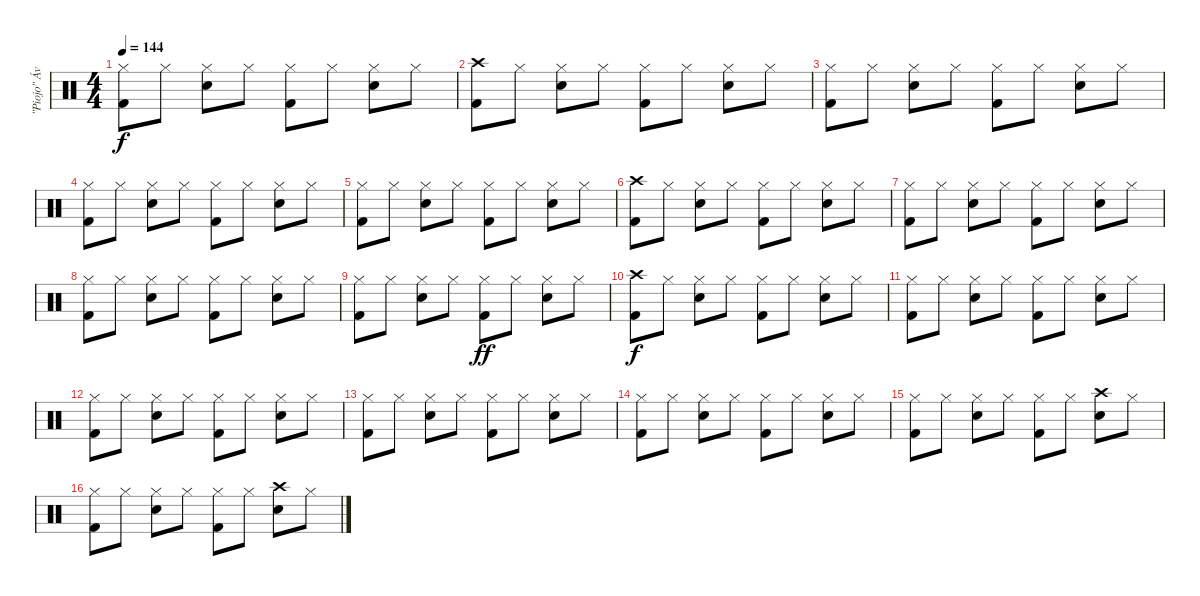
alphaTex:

\track ("\"Piojo\" Ávalos" "\"Piojo\" Áv") {instrument percussion}
\staff {score}
\articulation defaults
\ts (4 4)
\tempo 144
\clef neutral
\ks c
("Hi-Hat (closed)" "Kick (hit) 2").8{dy f} "Hi-Hat (closed)".8 ("Hi-Hat (closed)" "Electric Snare (hit)").8 "Hi-Hat (closed)".8 ("Hi-Hat (closed)" "Kick (hit) 2").8 "Hi-Hat (closed)".8 ("Hi-Hat (closed)" "Electric Snare (hit)").8 "Hi-Hat (closed)".8 |
("Crash high (hit)" "Kick (hit) 2").8 "Hi-Hat (closed)".8 ("Hi-Hat (closed)" "Electric Snare (hit)").8 "Hi-Hat (closed)".8 ("Hi-Hat (closed)" "Kick (hit) 2").8 "Hi-Hat (closed)".8 ("Hi-Hat (closed)" "Electric Snare (hit)").8 "Hi-Hat (closed)".8 |
("Hi-Hat (closed)" "Kick (hit) 2").8 "Hi-Hat (closed)".8 ("Hi-Hat (closed)" "Electric Snare (hit)").8 "Hi-Hat (closed)".8 ("Hi-Hat (closed)" "Kick (hit) 2").8 "Hi-Hat (closed)".8 ("Hi-Hat (closed)" "Electric Snare (hit)").8 "Hi-Hat (closed)".8 |
("Hi-Hat (closed)" "Kick (hit) 2").8 "Hi-Hat (closed)".8 ("Hi-Hat (closed)" "Electric Snare (hit)").8 "Hi-Hat (closed)".8 ("Hi-Hat (closed)" "Kick (hit) 2").8 "Hi-Hat (closed)".8 ("Hi-Hat (closed)" "Electric Snare (hit)").8 "Hi-Hat (closed)".8 |
("Hi-Hat (closed)" "Kick (hit) 2").8 "Hi-Hat (closed)".8 ("Hi-Hat (closed)" "Electric Snare (hit)").8 "Hi-Hat (closed)".8 ("Hi-Hat (closed)" "Kick (hit) 2").8 "Hi-Hat (closed)".8 ("Hi-Hat (closed)" "Electric Snare (hit)").8 "Hi-Hat (closed)".8 |
("Crash high (hit)" "Kick (hit) 2").8 "Hi-Hat (closed)".8 ("Hi-Hat (closed)" "Electric Snare (hit)").8 "Hi-Hat (closed)".8 ("Hi-Hat (closed)" "Kick (hit) 2").8 "Hi-Hat (closed)".8 ("Hi-Hat (closed)" "Electric Snare (hit)").8 "Hi-Hat (closed)".8 |
("Hi-Hat (closed)" "Kick (hit) 2").8 "Hi-Hat (closed)".8 ("Hi-Hat (closed)" "Electric Snare (hit)").8 "Hi-Hat (closed)".8 ("Hi-Hat (closed)" "Kick (hit) 2").8 "Hi-Hat (closed)".8 ("Hi-Hat (closed)" "Electric Snare (hit)").8 "Hi-Hat (closed)".8 |
("Hi-Hat (closed)" "Kick (hit) 2").8 "Hi-Hat (closed)".8 ("Hi-Hat (closed)" "Electric Snare (hit)").8 "Hi-Hat (closed)".8 ("Hi-Hat (closed)" "Kick (hit) 2").8 "Hi-Hat (closed)".8 ("Hi-Hat (closed)" "Electric Snare (hit)").8 "Hi-Hat (closed)".8 |
("Hi-Hat (closed)" "Kick (hit) 2").8 "Hi-Hat (closed)".8 ("Hi-Hat (closed)" "Electric Snare (hit)").8 "Hi-Hat (closed)".8 ("Hi-Hat (closed)" "Kick (hit) 2").8{dy ff} "Hi-Hat (closed)".8 ("Hi-Hat (closed)" "Electric Snare (hit)").8 "Hi-Hat (closed)".8 |
("Crash high (hit)" "Kick (hit) 2").8{dy f} "Hi-Hat (closed)".8 ("Hi-Hat (closed)" "Electric Snare (hit)").8 "Hi-Hat (closed)".8 ("Hi-Hat (closed)" "Kick (hit) 2").8 "Hi-Hat (closed)".8 ("Hi-Hat (closed)" "Electric Snare (hit)").8 "Hi-Hat (closed)".8 |
("Hi-Hat (closed)" "Kick (hit) 2").8 "Hi-Hat (closed)".8 ("Hi-Hat (closed)" "Electric Snare (hit)").8 "Hi-Hat (closed)".8 ("Hi-Hat (closed)" "Kick (hit) 2").8 "Hi-Hat (closed)".8 ("Hi-Hat (closed)" "Electric Snare (hit)").8 "Hi-Hat (closed)".8 |
("Hi-Hat (closed)" "Kick (hit) 2").8 "Hi-Hat (closed)".8 ("Hi-Hat (closed)" "Electric Snare (hit)").8 "Hi-Hat (closed)".8 ("Hi-Hat (closed)" "Kick (hit) 2").8 "Hi-Hat (closed)".8 ("Hi-Hat (closed)" "Electric Snare (hit)").8 "Hi-Hat (closed)".8 |
("Hi-Hat (closed)" "Kick (hit) 2").8 "Hi-Hat (closed)".8 ("Hi-Hat (closed)" "Electric Snare (hit)").8 "Hi-Hat (closed)".8 ("Hi-Hat (closed)" "Kick (hit) 2").8 "Hi-Hat (closed)".8 ("Hi-Hat (closed)" "Electric Snare (hit)").8 "Hi-Hat (closed)".8 |
("Hi-Hat (closed)" "Kick (hit) 2").8 "Hi-Hat (closed)".8 ("Hi-Hat (closed)" "Electric Snare (hit)").8 "Hi-Hat (closed)".8 ("Hi-Hat (closed)" "Kick (hit) 2").8 "Hi-Hat (closed)".8 ("Hi-Hat (closed)" "Electric Snare (hit)").8 "Hi-Hat (closed)".8 |
("Hi-Hat (closed)" "Kick (hit) 2").8 "Hi-Hat (closed)".8 ("Hi-Hat (closed)" "Electric Snare (hit)").8 "Hi-Hat (closed)".8 ("Hi-Hat (closed)" "Kick (hit) 2").8 "Hi-Hat (closed)".8 ("Crash high (hit)" "Electric Snare (hit)").8 "Hi-Hat (closed)".8 |
("Hi-Hat (closed)" "Kick (hit) 2").8 "Hi-Hat (closed)".8 ("Hi-Hat (closed)" "Electric Snare (hit)").8 "Hi-Hat (closed)".8 ("Hi-Hat (closed)" "Kick (hit) 2").8 "Hi-Hat (closed)".8 ("Crash high (hit)" "Electric Snare (hit)").8 "Hi-Hat (closed)".8
